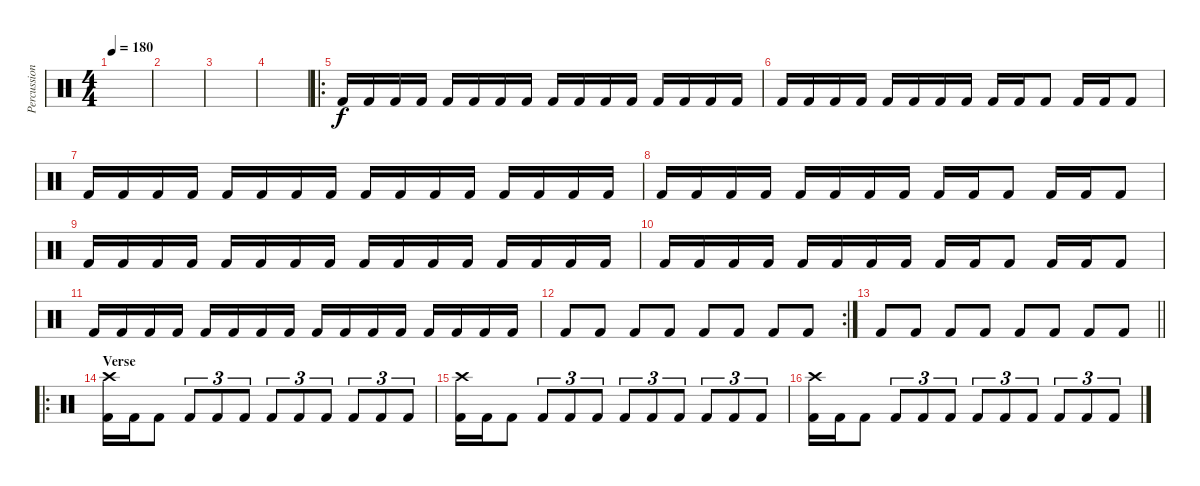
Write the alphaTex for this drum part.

\track ("Percussion" "Percussion") {instrument percussion}
\staff {score}
\articulation defaults
\ts (4 4)
\tempo 180
\clef neutral
\ks c
|
|
|
|
\ro "Kick (hit) 2".16 "Kick (hit) 2".16 "Kick (hit) 2".16 "Kick (hit) 2".16 "Kick (hit) 2".16 "Kick (hit) 2".16 "Kick (hit) 2".16 "Kick (hit) 2".16 "Kick (hit) 2".16 "Kick (hit) 2".16 "Kick (hit) 2".16 "Kick (hit) 2".16 "Kick (hit) 2".16 "Kick (hit) 2".16 "Kick (hit) 2".16 "Kick (hit) 2".16
|
"Kick (hit) 2".16 "Kick (hit) 2".16 "Kick (hit) 2".16 "Kick (hit) 2".16 "Kick (hit) 2".16 "Kick (hit) 2".16 "Kick (hit) 2".16 "Kick (hit) 2".16 "Kick (hit) 2".16 "Kick (hit) 2".16 "Kick (hit) 2".8 "Kick (hit) 2".16 "Kick (hit) 2".16 "Kick (hit) 2".8 |
"Kick (hit) 2".16 "Kick (hit) 2".16 "Kick (hit) 2".16 "Kick (hit) 2".16 "Kick (hit) 2".16 "Kick (hit) 2".16 "Kick (hit) 2".16 "Kick (hit) 2".16 "Kick (hit) 2".16 "Kick (hit) 2".16 "Kick (hit) 2".16 "Kick (hit) 2".16 "Kick (hit) 2".16 "Kick (hit) 2".16 "Kick (hit) 2".16 "Kick (hit) 2".16 |
"Kick (hit) 2".16 "Kick (hit) 2".16 "Kick (hit) 2".16 "Kick (hit) 2".16 "Kick (hit) 2".16 "Kick (hit) 2".16 "Kick (hit) 2".16 "Kick (hit) 2".16 "Kick (hit) 2".16 "Kick (hit) 2".16 "Kick (hit) 2".8 "Kick (hit) 2".16 "Kick (hit) 2".16 "Kick (hit) 2".8 |
"Kick (hit) 2".16 "Kick (hit) 2".16 "Kick (hit) 2".16 "Kick (hit) 2".16 "Kick (hit) 2".16 "Kick (hit) 2".16 "Kick (hit) 2".16 "Kick (hit) 2".16 "Kick (hit) 2".16 "Kick (hit) 2".16 "Kick (hit) 2".16 "Kick (hit) 2".16 "Kick (hit) 2".16 "Kick (hit) 2".16 "Kick (hit) 2".16 "Kick (hit) 2".16 |
"Kick (hit) 2".16 "Kick (hit) 2".16 "Kick (hit) 2".16 "Kick (hit) 2".16 "Kick (hit) 2".16 "Kick (hit) 2".16 "Kick (hit) 2".16 "Kick (hit) 2".16 "Kick (hit) 2".16 "Kick (hit) 2".16 "Kick (hit) 2".8 "Kick (hit) 2".16 "Kick (hit) 2".16 "Kick (hit) 2".8 |
"Kick (hit) 2".16 "Kick (hit) 2".16 "Kick (hit) 2".16 "Kick (hit) 2".16 "Kick (hit) 2".16 "Kick (hit) 2".16 "Kick (hit) 2".16 "Kick (hit) 2".16 "Kick (hit) 2".16 "Kick (hit) 2".16 "Kick (hit) 2".16 "Kick (hit) 2".16 "Kick (hit) 2".16 "Kick (hit) 2".16 "Kick (hit) 2".16 "Kick (hit) 2".16 |
\rc 2 "Kick (hit) 2".8 "Kick (hit) 2".8 "Kick (hit) 2".8 "Kick (hit) 2".8 "Kick (hit) 2".8 "Kick (hit) 2".8 "Kick (hit) 2".8 "Kick (hit) 2".8
|
\barLineRight lightlight "Kick (hit) 2".8 "Kick (hit) 2".8 "Kick (hit) 2".8 "Kick (hit) 2".8 "Kick (hit) 2".8 "Kick (hit) 2".8 "Kick (hit) 2".8 "Kick (hit) 2".8
|
\ro
\section ("" "Verse")
("Kick (hit) 2" "Crash high (hit)").16 "Kick (hit) 2".16 "Kick (hit) 2".8 "Kick (hit) 2".8{tu (3 2)} "Kick (hit) 2".8{tu (3 2)} "Kick (hit) 2".8{tu (3 2)} "Kick (hit) 2".8{tu (3 2)} "Kick (hit) 2".8{tu (3 2)} "Kick (hit) 2".8{tu (3 2)} "Kick (hit) 2".8{tu (3 2)} "Kick (hit) 2".8{tu (3 2)} "Kick (hit) 2".8{tu (3 2)} |
("Kick (hit) 2" "Crash high (hit)").16 "Kick (hit) 2".16 "Kick (hit) 2".8 "Kick (hit) 2".8{tu (3 2)} "Kick (hit) 2".8{tu (3 2)} "Kick (hit) 2".8{tu (3 2)} "Kick (hit) 2".8{tu (3 2)} "Kick (hit) 2".8{tu (3 2)} "Kick (hit) 2".8{tu (3 2)} "Kick (hit) 2".8{tu (3 2)} "Kick (hit) 2".8{tu (3 2)} "Kick (hit) 2".8{tu (3 2)} |
("Kick (hit) 2" "Crash high (hit)").16 "Kick (hit) 2".16 "Kick (hit) 2".8 "Kick (hit) 2".8{tu (3 2)} "Kick (hit) 2".8{tu (3 2)} "Kick (hit) 2".8{tu (3 2)} "Kick (hit) 2".8{tu (3 2)} "Kick (hit) 2".8{tu (3 2)} "Kick (hit) 2".8{tu (3 2)} "Kick (hit) 2".8{tu (3 2)} "Kick (hit) 2".8{tu (3 2)} "Kick (hit) 2".8{tu (3 2)}
